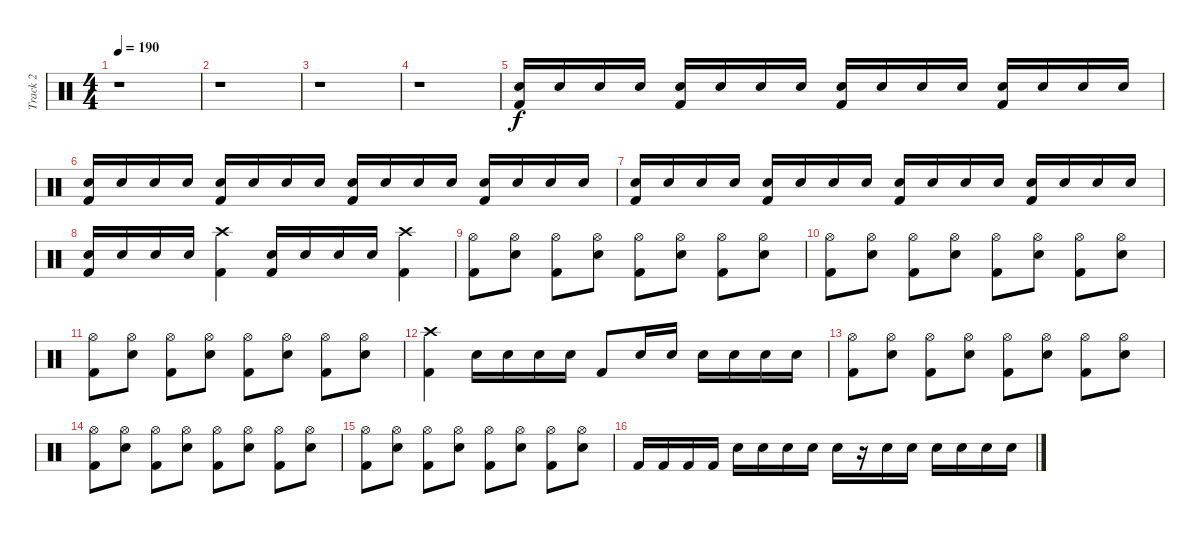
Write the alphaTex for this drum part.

\track ("Track 2" "Track 2") {instrument percussion}
\staff {score}
\articulation defaults
\ts (4 4)
\tempo 190
\clef neutral
\ks c
r.1{dy f} |
r.1 |
r.1 |
r.1 |
("Snare (hit) 2" "Kick (hit) 2").16 "Snare (hit) 2".16 "Snare (hit) 2".16 "Snare (hit) 2".16 ("Snare (hit) 2" "Kick (hit) 2").16 "Snare (hit) 2".16 "Snare (hit) 2".16 "Snare (hit) 2".16 ("Snare (hit) 2" "Kick (hit) 2").16 "Snare (hit) 2".16 "Snare (hit) 2".16 "Snare (hit) 2".16 ("Snare (hit) 2" "Kick (hit) 2").16 "Snare (hit) 2".16 "Snare (hit) 2".16 "Snare (hit) 2".16 |
("Snare (hit) 2" "Kick (hit) 2").16 "Snare (hit) 2".16 "Snare (hit) 2".16 "Snare (hit) 2".16 ("Snare (hit) 2" "Kick (hit) 2").16 "Snare (hit) 2".16 "Snare (hit) 2".16 "Snare (hit) 2".16 ("Snare (hit) 2" "Kick (hit) 2").16 "Snare (hit) 2".16 "Snare (hit) 2".16 "Snare (hit) 2".16 ("Snare (hit) 2" "Kick (hit) 2").16 "Snare (hit) 2".16 "Snare (hit) 2".16 "Snare (hit) 2".16 |
("Snare (hit) 2" "Kick (hit) 2").16 "Snare (hit) 2".16 "Snare (hit) 2".16 "Snare (hit) 2".16 ("Snare (hit) 2" "Kick (hit) 2").16 "Snare (hit) 2".16 "Snare (hit) 2".16 "Snare (hit) 2".16 ("Snare (hit) 2" "Kick (hit) 2").16 "Snare (hit) 2".16 "Snare (hit) 2".16 "Snare (hit) 2".16 ("Snare (hit) 2" "Kick (hit) 2").16 "Snare (hit) 2".16 "Snare (hit) 2".16 "Snare (hit) 2".16 |
("Snare (hit) 2" "Kick (hit) 2").16 "Snare (hit) 2".16 "Snare (hit) 2".16 "Snare (hit) 2".16 ("Crash high (hit)" "Kick (hit) 2").4 ("Snare (hit) 2" "Kick (hit) 2").16 "Snare (hit) 2".16 "Snare (hit) 2".16 "Snare (hit) 2".16 ("Crash high (hit)" "Kick (hit) 2").4 |
("Hi-Hat (open)" "Kick (hit) 2").8 ("Hi-Hat (open)" "Snare (hit) 2").8 ("Hi-Hat (open)" "Kick (hit) 2").8 ("Hi-Hat (open)" "Snare (hit) 2").8 ("Hi-Hat (open)" "Kick (hit) 2").8 ("Hi-Hat (open)" "Snare (hit) 2").8 ("Hi-Hat (open)" "Kick (hit) 2").8 ("Hi-Hat (open)" "Snare (hit) 2").8 |
("Hi-Hat (open)" "Kick (hit) 2").8 ("Hi-Hat (open)" "Snare (hit) 2").8 ("Hi-Hat (open)" "Kick (hit) 2").8 ("Hi-Hat (open)" "Snare (hit) 2").8 ("Hi-Hat (open)" "Kick (hit) 2").8 ("Hi-Hat (open)" "Snare (hit) 2").8 ("Hi-Hat (open)" "Kick (hit) 2").8 ("Hi-Hat (open)" "Snare (hit) 2").8 |
("Hi-Hat (open)" "Kick (hit) 2").8 ("Hi-Hat (open)" "Snare (hit) 2").8 ("Hi-Hat (open)" "Kick (hit) 2").8 ("Hi-Hat (open)" "Snare (hit) 2").8 ("Hi-Hat (open)" "Kick (hit) 2").8 ("Hi-Hat (open)" "Snare (hit) 2").8 ("Hi-Hat (open)" "Kick (hit) 2").8 ("Hi-Hat (open)" "Snare (hit) 2").8 |
("Crash high (hit)" "Kick (hit) 2").4 "Snare (hit) 2".16 "Snare (hit) 2".16 "Snare (hit) 2".16 "Snare (hit) 2".16 "Kick (hit) 2".8 "Snare (hit) 2".16 "Snare (hit) 2".16 "Snare (hit) 2".16 "Snare (hit) 2".16 "Snare (hit) 2".16 "Snare (hit) 2".16 |
("Hi-Hat (open)" "Kick (hit) 2").8 ("Hi-Hat (open)" "Snare (hit) 2").8 ("Hi-Hat (open)" "Kick (hit) 2").8 ("Hi-Hat (open)" "Snare (hit) 2").8 ("Hi-Hat (open)" "Kick (hit) 2").8 ("Hi-Hat (open)" "Snare (hit) 2").8 ("Hi-Hat (open)" "Kick (hit) 2").8 ("Hi-Hat (open)" "Snare (hit) 2").8 |
("Hi-Hat (open)" "Kick (hit) 2").8 ("Hi-Hat (open)" "Snare (hit) 2").8 ("Hi-Hat (open)" "Kick (hit) 2").8 ("Hi-Hat (open)" "Snare (hit) 2").8 ("Hi-Hat (open)" "Kick (hit) 2").8 ("Hi-Hat (open)" "Snare (hit) 2").8 ("Hi-Hat (open)" "Kick (hit) 2").8 ("Hi-Hat (open)" "Snare (hit) 2").8 |
("Hi-Hat (open)" "Kick (hit) 2").8 ("Hi-Hat (open)" "Snare (hit) 2").8 ("Hi-Hat (open)" "Kick (hit) 2").8 ("Hi-Hat (open)" "Snare (hit) 2").8 ("Hi-Hat (open)" "Kick (hit) 2").8 ("Hi-Hat (open)" "Snare (hit) 2").8 ("Hi-Hat (open)" "Kick (hit) 2").8 ("Hi-Hat (open)" "Snare (hit) 2").8 |
"Kick (hit) 2".16 "Kick (hit) 2".16 "Kick (hit) 2".16 "Kick (hit) 2".16 "Snare (hit) 2".16 "Snare (hit) 2".16 "Snare (hit) 2".16 "Snare (hit) 2".16 "Snare (hit) 2".16 r.16 "Snare (hit) 2".16 "Snare (hit) 2".16 "Snare (hit) 2".16 "Snare (hit) 2".16 "Snare (hit) 2".16 "Snare (hit) 2".16
